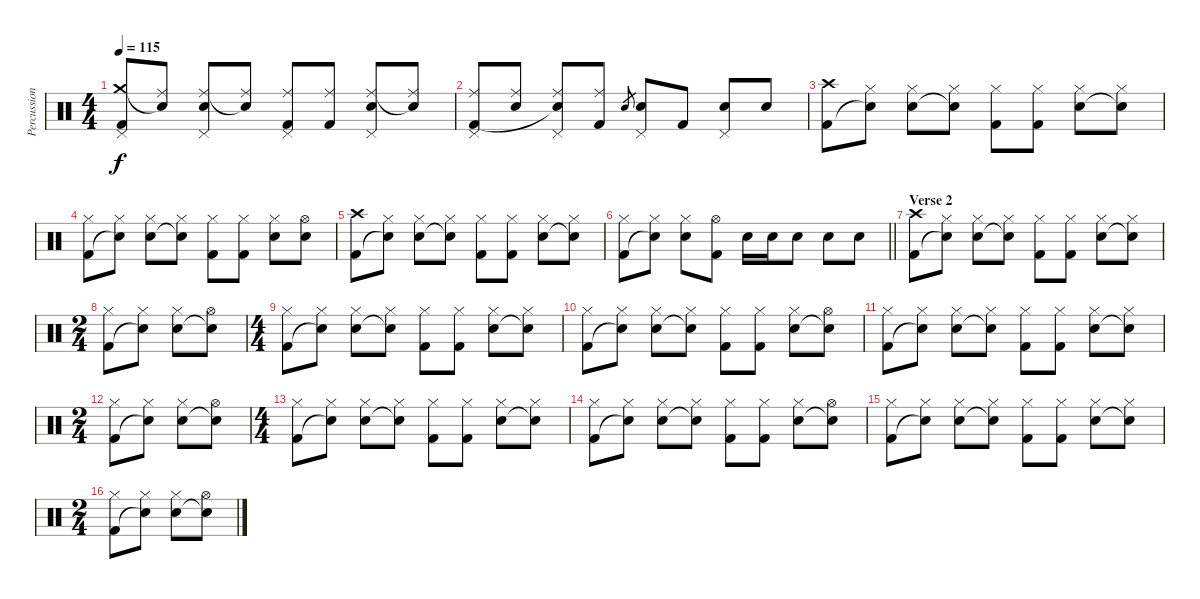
\track ("Percussioni" "Percussion") {instrument percussion}
\staff {score}
\articulation defaults
\ts (4 4)
\tempo 115
\clef neutral
\ks c
("Pedal Hi-Hat (hit)" "Crash medium (hit)" "Kick (hit) 2").8{dy f} ("Ride (middle)" "Snare (hit)"{t}).8 ("Pedal Hi-Hat (hit)" "Ride (middle)" "Electric Snare (hit)").8 ("Ride (middle)" "Snare (hit)"{t}).8 ("Pedal Hi-Hat (hit)" "Ride (middle)" "Kick (hit) 2").8 ("Ride (middle)" "Kick (hit) 2").8 ("Pedal Hi-Hat (hit)" "Ride (middle)" "Electric Snare (hit)").8 ("Ride (middle)" "Snare (hit)"{t}).8 |
("Pedal Hi-Hat (hit)" "Ride (middle)" "Kick (hit) 2").8 ("Ride (middle)" "Electric Snare (hit)").8 ("Pedal Hi-Hat (hit)" "Ride (middle)" "Snare (hit)"{t}).8 ("Ride (middle)" "Kick (hit) 2").8 "Electric Snare (hit)".8{gr} ("Pedal Hi-Hat (hit)" "Electric Snare (hit)").8 "Kick (hit) 2".8 ("Pedal Hi-Hat (hit)" "Electric Snare (hit)").8 "Electric Snare (hit)".8 |
("Crash high (hit)" "Kick (hit) 2").8 ("Hi-Hat (closed)" "Snare (hit)"{t}).8 ("Hi-Hat (closed)" "Electric Snare (hit)").8 ("Hi-Hat (closed)" "Snare (hit)"{t}).8 ("Hi-Hat (closed)" "Kick (hit) 2").8 ("Hi-Hat (closed)" "Kick (hit) 2").8 ("Hi-Hat (closed)" "Electric Snare (hit)").8 ("Hi-Hat (closed)" "Snare (hit)"{t}).8 |
("Hi-Hat (closed)" "Kick (hit) 2").8 ("Hi-Hat (closed)" "Snare (hit)"{t}).8 ("Hi-Hat (closed)" "Electric Snare (hit)").8 ("Hi-Hat (closed)" "Snare (hit)"{t}).8 ("Hi-Hat (closed)" "Kick (hit) 2").8 ("Hi-Hat (closed)" "Kick (hit) 2").8 ("Hi-Hat (closed)" "Electric Snare (hit)").8 ("Hi-Hat (open)" "Electric Snare (hit)").8 |
("Crash high (hit)" "Kick (hit) 2").8 ("Hi-Hat (closed)" "Snare (hit)"{t}).8 ("Hi-Hat (closed)" "Electric Snare (hit)").8 ("Hi-Hat (closed)" "Snare (hit)"{t}).8 ("Hi-Hat (closed)" "Kick (hit) 2").8 ("Hi-Hat (closed)" "Kick (hit) 2").8 ("Hi-Hat (closed)" "Electric Snare (hit)").8 ("Hi-Hat (closed)" "Snare (hit)"{t}).8 |
\barLineRight lightlight
("Hi-Hat (closed)" "Kick (hit) 2").8 ("Hi-Hat (closed)" "Snare (hit)"{t}).8 ("Hi-Hat (closed)" "Electric Snare (hit)").8 ("Hi-Hat (open)" "Kick (hit) 2").8 "Electric Snare (hit)".16 "Electric Snare (hit)".16 "Electric Snare (hit)".8 "Electric Snare (hit)".8 "Electric Snare (hit)".8 |
\section ("" "Verse 2")
("Crash high (hit)" "Kick (hit) 2").8 ("Hi-Hat (closed)" "Snare (hit)"{t}).8 ("Hi-Hat (closed)" "Electric Snare (hit)").8 ("Hi-Hat (closed)" "Snare (hit)"{t}).8 ("Hi-Hat (closed)" "Kick (hit) 2").8 ("Hi-Hat (closed)" "Kick (hit) 2").8 ("Hi-Hat (closed)" "Electric Snare (hit)").8 ("Hi-Hat (closed)" "Snare (hit)"{t}).8 |
\ts (2 4)
("Hi-Hat (closed)" "Kick (hit) 2").8 ("Hi-Hat (closed)" "Snare (hit)"{t}).8 ("Hi-Hat (closed)" "Electric Snare (hit)").8 ("Hi-Hat (open)" "Snare (hit)"{t}).8 |
\ts (4 4)
("Hi-Hat (closed)" "Kick (hit) 2").8 ("Hi-Hat (closed)" "Snare (hit)"{t}).8 ("Hi-Hat (closed)" "Electric Snare (hit)").8 ("Hi-Hat (closed)" "Snare (hit)"{t}).8 ("Hi-Hat (closed)" "Kick (hit) 2").8 ("Hi-Hat (closed)" "Kick (hit) 2").8 ("Hi-Hat (closed)" "Electric Snare (hit)").8 ("Hi-Hat (closed)" "Snare (hit)"{t}).8 |
("Hi-Hat (closed)" "Kick (hit) 2").8 ("Hi-Hat (closed)" "Snare (hit)"{t}).8 ("Hi-Hat (closed)" "Electric Snare (hit)").8 ("Hi-Hat (closed)" "Snare (hit)"{t}).8 ("Hi-Hat (closed)" "Kick (hit) 2").8 ("Hi-Hat (closed)" "Kick (hit) 2").8 ("Hi-Hat (closed)" "Electric Snare (hit)").8 ("Hi-Hat (open)" "Snare (hit)"{t}).8 |
("Hi-Hat (closed)" "Kick (hit) 2").8 ("Hi-Hat (closed)" "Snare (hit)"{t}).8 ("Hi-Hat (closed)" "Electric Snare (hit)").8 ("Hi-Hat (closed)" "Snare (hit)"{t}).8 ("Hi-Hat (closed)" "Kick (hit) 2").8 ("Hi-Hat (closed)" "Kick (hit) 2").8 ("Hi-Hat (closed)" "Electric Snare (hit)").8 ("Hi-Hat (closed)" "Snare (hit)"{t}).8 |
\ts (2 4)
("Hi-Hat (closed)" "Kick (hit) 2").8 ("Hi-Hat (closed)" "Snare (hit)"{t}).8 ("Hi-Hat (closed)" "Electric Snare (hit)").8 ("Hi-Hat (open)" "Snare (hit)"{t}).8 |
\ts (4 4)
("Hi-Hat (closed)" "Kick (hit) 2").8 ("Hi-Hat (closed)" "Snare (hit)"{t}).8 ("Hi-Hat (closed)" "Electric Snare (hit)").8 ("Hi-Hat (closed)" "Snare (hit)"{t}).8 ("Hi-Hat (closed)" "Kick (hit) 2").8 ("Hi-Hat (closed)" "Kick (hit) 2").8 ("Hi-Hat (closed)" "Electric Snare (hit)").8 ("Hi-Hat (closed)" "Snare (hit)"{t}).8 |
("Hi-Hat (closed)" "Kick (hit) 2").8 ("Hi-Hat (closed)" "Snare (hit)"{t}).8 ("Hi-Hat (closed)" "Electric Snare (hit)").8 ("Hi-Hat (closed)" "Snare (hit)"{t}).8 ("Hi-Hat (closed)" "Kick (hit) 2").8 ("Hi-Hat (closed)" "Kick (hit) 2").8 ("Hi-Hat (closed)" "Electric Snare (hit)").8 ("Hi-Hat (open)" "Snare (hit)"{t}).8 |
("Hi-Hat (closed)" "Kick (hit) 2").8 ("Hi-Hat (closed)" "Snare (hit)"{t}).8 ("Hi-Hat (closed)" "Electric Snare (hit)").8 ("Hi-Hat (closed)" "Snare (hit)"{t}).8 ("Hi-Hat (closed)" "Kick (hit) 2").8 ("Hi-Hat (closed)" "Kick (hit) 2").8 ("Hi-Hat (closed)" "Electric Snare (hit)").8 ("Hi-Hat (closed)" "Snare (hit)"{t}).8 |
\ts (2 4)
("Hi-Hat (closed)" "Kick (hit) 2").8 ("Hi-Hat (closed)" "Snare (hit)"{t}).8 ("Hi-Hat (closed)" "Electric Snare (hit)").8 ("Hi-Hat (open)" "Snare (hit)"{t}).8
